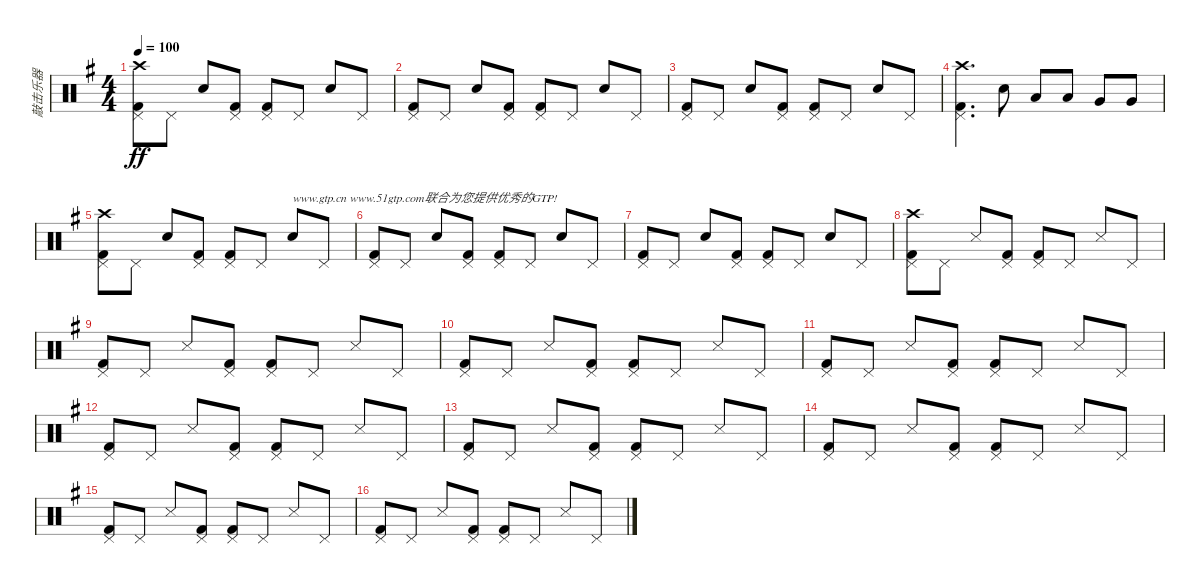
\track ("敲击乐器" "敲击乐器") {instrument percussion}
\staff {score}
\articulation defaults
\ts (4 4)
\tempo 100
\clef neutral
\ks g
("Crash high (hit)" "Pedal Hi-Hat (hit)" "Kick (hit) 2").8{dy ff} "Pedal Hi-Hat (hit)".8 "Snare (hit) 2".8 ("Pedal Hi-Hat (hit)" "Kick (hit) 2").8 ("Pedal Hi-Hat (hit)" "Kick (hit) 2").8 "Pedal Hi-Hat (hit)".8 "Snare (hit) 2".8 "Pedal Hi-Hat (hit)".8 |
("Pedal Hi-Hat (hit)" "Kick (hit) 2").8 "Pedal Hi-Hat (hit)".8 "Snare (hit) 2".8 ("Pedal Hi-Hat (hit)" "Kick (hit) 2").8 ("Pedal Hi-Hat (hit)" "Kick (hit) 2").8 "Pedal Hi-Hat (hit)".8 "Snare (hit) 2".8 "Pedal Hi-Hat (hit)".8 |
("Pedal Hi-Hat (hit)" "Kick (hit) 2").8 "Pedal Hi-Hat (hit)".8 "Snare (hit) 2".8 ("Pedal Hi-Hat (hit)" "Kick (hit) 2").8 ("Pedal Hi-Hat (hit)" "Kick (hit) 2").8 "Pedal Hi-Hat (hit)".8 "Snare (hit) 2".8 "Pedal Hi-Hat (hit)".8 |
("Crash high (hit)" "Pedal Hi-Hat (hit)" "Kick (hit) 2").4{d} "Snare (hit) 2".8 "Low Floor Tom (hit)".8 "Low Floor Tom (hit)".8 "Very Low Tom (hit)".8 "Very Low Tom (hit)".8 |
("Crash high (hit)" "Pedal Hi-Hat (hit)" "Kick (hit) 2").8 "Pedal Hi-Hat (hit)".8 "Snare (hit) 2".8 ("Pedal Hi-Hat (hit)" "Kick (hit) 2").8 ("Pedal Hi-Hat (hit)" "Kick (hit) 2").8 "Pedal Hi-Hat (hit)".8 "Snare (hit) 2".8{txt "www.gtp.cn www.51gtp.com联合为您提供优秀的GTP!"} "Pedal Hi-Hat (hit)".8 |
("Pedal Hi-Hat (hit)" "Kick (hit) 2").8 "Pedal Hi-Hat (hit)".8 "Snare (hit) 2".8 ("Pedal Hi-Hat (hit)" "Kick (hit) 2").8 ("Pedal Hi-Hat (hit)" "Kick (hit) 2").8 "Pedal Hi-Hat (hit)".8 "Snare (hit) 2".8 "Pedal Hi-Hat (hit)".8 |
("Pedal Hi-Hat (hit)" "Kick (hit) 2").8 "Pedal Hi-Hat (hit)".8 "Snare (hit) 2".8 ("Pedal Hi-Hat (hit)" "Kick (hit) 2").8 ("Pedal Hi-Hat (hit)" "Kick (hit) 2").8 "Pedal Hi-Hat (hit)".8 "Snare (hit) 2".8 "Pedal Hi-Hat (hit)".8 |
("Crash high (hit)" "Pedal Hi-Hat (hit)" "Kick (hit) 2").8 "Pedal Hi-Hat (hit)".8 "Metronome (hit)".8 ("Pedal Hi-Hat (hit)" "Kick (hit) 2").8 ("Pedal Hi-Hat (hit)" "Kick (hit) 2").8 "Pedal Hi-Hat (hit)".8 "Metronome (hit)".8 "Pedal Hi-Hat (hit)".8 |
("Pedal Hi-Hat (hit)" "Kick (hit) 2").8 "Pedal Hi-Hat (hit)".8 "Metronome (hit)".8 ("Pedal Hi-Hat (hit)" "Kick (hit) 2").8 ("Pedal Hi-Hat (hit)" "Kick (hit) 2").8 "Pedal Hi-Hat (hit)".8 "Metronome (hit)".8 "Pedal Hi-Hat (hit)".8 |
("Pedal Hi-Hat (hit)" "Kick (hit) 2").8 "Pedal Hi-Hat (hit)".8 "Metronome (hit)".8 ("Pedal Hi-Hat (hit)" "Kick (hit) 2").8 ("Pedal Hi-Hat (hit)" "Kick (hit) 2").8 "Pedal Hi-Hat (hit)".8 "Metronome (hit)".8 "Pedal Hi-Hat (hit)".8 |
("Pedal Hi-Hat (hit)" "Kick (hit) 2").8 "Pedal Hi-Hat (hit)".8 "Metronome (hit)".8 ("Pedal Hi-Hat (hit)" "Kick (hit) 2").8 ("Pedal Hi-Hat (hit)" "Kick (hit) 2").8 "Pedal Hi-Hat (hit)".8 "Metronome (hit)".8 "Pedal Hi-Hat (hit)".8 |
("Pedal Hi-Hat (hit)" "Kick (hit) 2").8 "Pedal Hi-Hat (hit)".8 "Metronome (hit)".8 ("Pedal Hi-Hat (hit)" "Kick (hit) 2").8 ("Pedal Hi-Hat (hit)" "Kick (hit) 2").8 "Pedal Hi-Hat (hit)".8 "Metronome (hit)".8 "Pedal Hi-Hat (hit)".8 |
("Pedal Hi-Hat (hit)" "Kick (hit) 2").8 "Pedal Hi-Hat (hit)".8 "Metronome (hit)".8 ("Pedal Hi-Hat (hit)" "Kick (hit) 2").8 ("Pedal Hi-Hat (hit)" "Kick (hit) 2").8 "Pedal Hi-Hat (hit)".8 "Metronome (hit)".8 "Pedal Hi-Hat (hit)".8 |
("Pedal Hi-Hat (hit)" "Kick (hit) 2").8 "Pedal Hi-Hat (hit)".8 "Metronome (hit)".8 ("Pedal Hi-Hat (hit)" "Kick (hit) 2").8 ("Pedal Hi-Hat (hit)" "Kick (hit) 2").8 "Pedal Hi-Hat (hit)".8 "Metronome (hit)".8 "Pedal Hi-Hat (hit)".8 |
("Pedal Hi-Hat (hit)" "Kick (hit) 2").8 "Pedal Hi-Hat (hit)".8 "Metronome (hit)".8 ("Pedal Hi-Hat (hit)" "Kick (hit) 2").8 ("Pedal Hi-Hat (hit)" "Kick (hit) 2").8 "Pedal Hi-Hat (hit)".8 "Metronome (hit)".8 "Pedal Hi-Hat (hit)".8 |
("Pedal Hi-Hat (hit)" "Kick (hit) 2").8 "Pedal Hi-Hat (hit)".8 "Metronome (hit)".8 ("Pedal Hi-Hat (hit)" "Kick (hit) 2").8 ("Pedal Hi-Hat (hit)" "Kick (hit) 2").8 "Pedal Hi-Hat (hit)".8 "Metronome (hit)".8 "Pedal Hi-Hat (hit)".8
